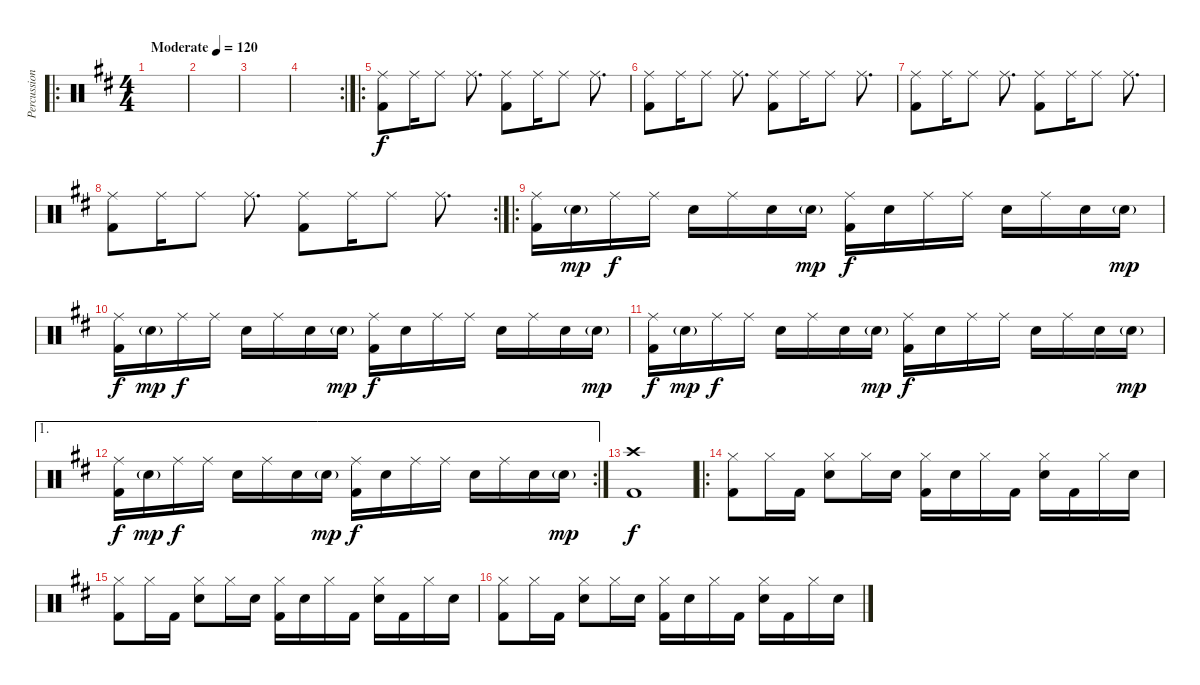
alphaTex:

\track ("Percussion" "Percussion") {instrument percussion}
\staff {score}
\articulation defaults
\ro
\ts (4 4)
\tempo (120 "Moderate")
\clef neutral
\ks d
|
|
|
\rc 2
|
\ro
("Ride (middle)" "Kick (hit) 2").8 "Ride (middle)".16 "Ride (middle)".8 "Ride (middle)".8{d} ("Ride (middle)" "Kick (hit) 2").8 "Ride (middle)".16 "Ride (middle)".8 "Ride (middle)".8{d} |
("Ride (middle)" "Kick (hit) 2").8 "Ride (middle)".16 "Ride (middle)".8 "Ride (middle)".8{d} ("Ride (middle)" "Kick (hit) 2").8 "Ride (middle)".16 "Ride (middle)".8 "Ride (middle)".8{d} |
("Ride (middle)" "Kick (hit) 2").8 "Ride (middle)".16 "Ride (middle)".8 "Ride (middle)".8{d} ("Ride (middle)" "Kick (hit) 2").8 "Ride (middle)".16 "Ride (middle)".8 "Ride (middle)".8{d} |
\rc 2
("Ride (middle)" "Kick (hit) 2").8 "Ride (middle)".16 "Ride (middle)".8 "Ride (middle)".8{d} ("Ride (middle)" "Kick (hit) 2").8 "Ride (middle)".16 "Ride (middle)".8 "Ride (middle)".8{d} |
\ro
("Ride (middle)" "Kick (hit) 2").16 "Snare (hit) 2"{g}.16{dy mp} "Ride (middle)".16{dy f} "Ride (middle)".16 "Snare (hit) 2".16 "Ride (middle)".16 "Snare (hit) 2".16 "Snare (hit) 2"{g}.16{dy mp} ("Ride (middle)" "Kick (hit) 2").16{dy f} "Snare (hit) 2".16 "Ride (middle)".16 "Ride (middle)".16 "Snare (hit) 2".16 "Ride (middle)".16 "Snare (hit) 2".16 "Snare (hit) 2"{g}.16{dy mp} |
("Ride (middle)" "Kick (hit) 2").16{dy f} "Snare (hit) 2"{g}.16{dy mp} "Ride (middle)".16{dy f} "Ride (middle)".16 "Snare (hit) 2".16 "Ride (middle)".16 "Snare (hit) 2".16 "Snare (hit) 2"{g}.16{dy mp} ("Ride (middle)" "Kick (hit) 2").16{dy f} "Snare (hit) 2".16 "Ride (middle)".16 "Ride (middle)".16 "Snare (hit) 2".16 "Ride (middle)".16 "Snare (hit) 2".16 "Snare (hit) 2"{g}.16{dy mp} |
("Ride (middle)" "Kick (hit) 2").16{dy f} "Snare (hit) 2"{g}.16{dy mp} "Ride (middle)".16{dy f} "Ride (middle)".16 "Snare (hit) 2".16 "Ride (middle)".16 "Snare (hit) 2".16 "Snare (hit) 2"{g}.16{dy mp} ("Ride (middle)" "Kick (hit) 2").16{dy f} "Snare (hit) 2".16 "Ride (middle)".16 "Ride (middle)".16 "Snare (hit) 2".16 "Ride (middle)".16 "Snare (hit) 2".16 "Snare (hit) 2"{g}.16{dy mp} |
\ae 1
\rc 2
("Ride (middle)" "Kick (hit) 2").16{dy f} "Snare (hit) 2"{g}.16{dy mp} "Ride (middle)".16{dy f} "Ride (middle)".16 "Snare (hit) 2".16 "Ride (middle)".16 "Snare (hit) 2".16 "Snare (hit) 2"{g}.16{dy mp} ("Ride (middle)" "Kick (hit) 2").16{dy f} "Snare (hit) 2".16 "Ride (middle)".16 "Ride (middle)".16 "Snare (hit) 2".16 "Ride (middle)".16 "Snare (hit) 2".16 "Snare (hit) 2"{g}.16{dy mp} |
("Crash high (hit)" "Kick (hit) 2").1{dy f} |
\ro
("Hi-Hat (closed)" "Kick (hit) 2").8 "Hi-Hat (closed)".16 "Kick (hit) 2".16 ("Hi-Hat (closed)" "Snare (hit) 2").8 "Hi-Hat (closed)".16 "Snare (hit) 2".16 ("Hi-Hat (closed)" "Kick (hit) 2").16 "Snare (hit) 2".16 "Hi-Hat (closed)".16 "Kick (hit) 2".16 ("Hi-Hat (closed)" "Snare (hit) 2").16 "Kick (hit) 2".16 "Hi-Hat (closed)".16 "Snare (hit) 2".16 |
("Hi-Hat (closed)" "Kick (hit) 2").8 "Hi-Hat (closed)".16 "Kick (hit) 2".16 ("Hi-Hat (closed)" "Snare (hit) 2").8 "Hi-Hat (closed)".16 "Snare (hit) 2".16 ("Hi-Hat (closed)" "Kick (hit) 2").16 "Snare (hit) 2".16 "Hi-Hat (closed)".16 "Kick (hit) 2".16 ("Hi-Hat (closed)" "Snare (hit) 2").16 "Kick (hit) 2".16 "Hi-Hat (closed)".16 "Snare (hit) 2".16 |
("Hi-Hat (closed)" "Kick (hit) 2").8 "Hi-Hat (closed)".16 "Kick (hit) 2".16 ("Hi-Hat (closed)" "Snare (hit) 2").8 "Hi-Hat (closed)".16 "Snare (hit) 2".16 ("Hi-Hat (closed)" "Kick (hit) 2").16 "Snare (hit) 2".16 "Hi-Hat (closed)".16 "Kick (hit) 2".16 ("Hi-Hat (closed)" "Snare (hit) 2").16 "Kick (hit) 2".16 "Hi-Hat (closed)".16 "Snare (hit) 2".16
